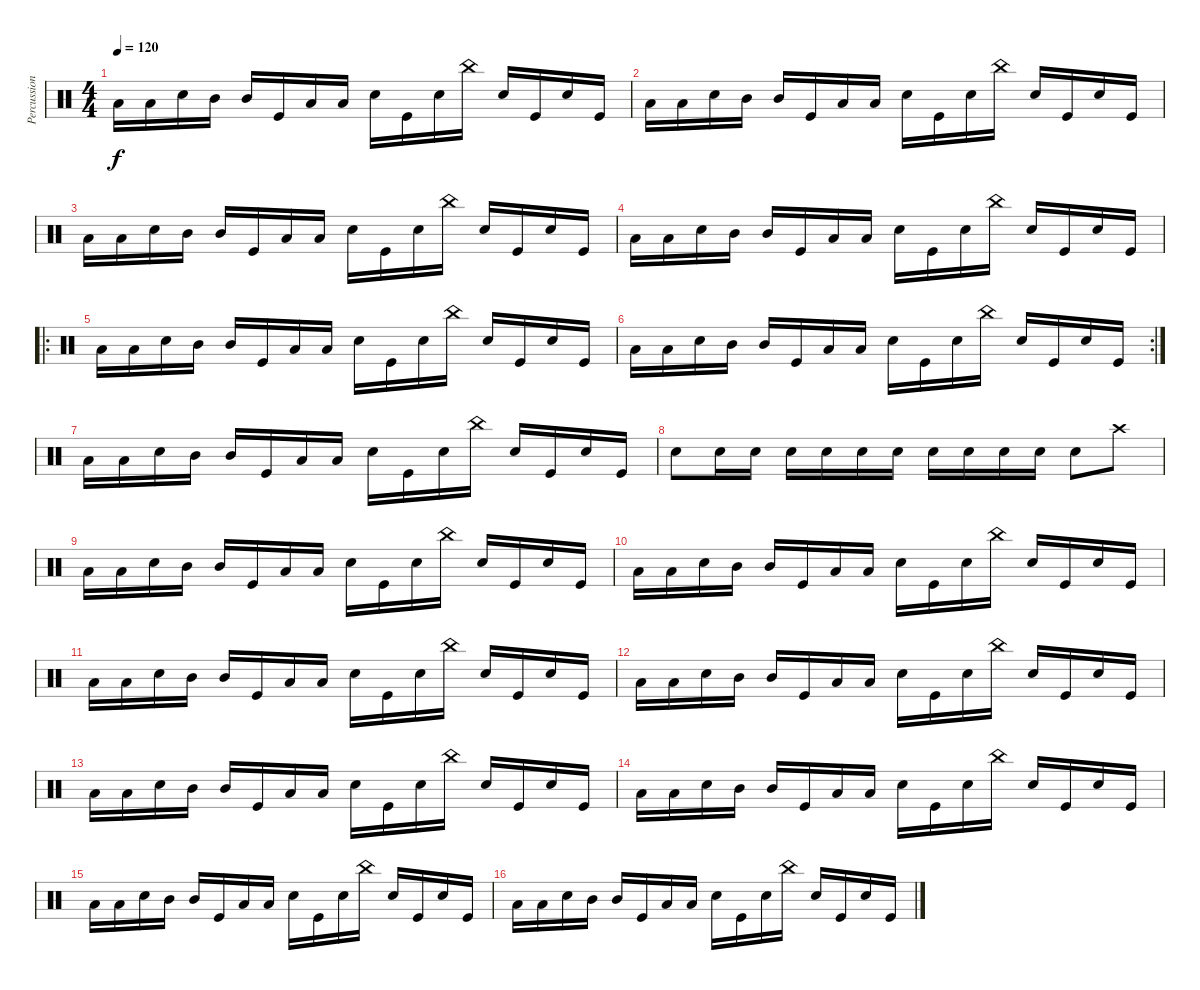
\track ("Percussion" "Percussion") {instrument percussion}
\staff {score}
\articulation defaults
\ts (4 4)
\tempo 120
\clef neutral
\ks c "Low Tom (hit)".16{dy f} "Low Tom (hit)".16 "Electric Snare (hit)".16 "Mid Tom (hit)".16 "Mid Tom (hit)".16 "Kick (hit)".16 "Low Tom (hit)".16 "Low Tom (hit)".16 "Electric Snare (hit)".16 "Kick (hit)".16 "Electric Snare (hit)".16 "China (hit)".16 "Electric Snare (hit)".16 "Kick (hit)".16 "Electric Snare (hit)".16 "Kick (hit)".16
|
"Low Tom (hit)".16 "Low Tom (hit)".16 "Electric Snare (hit)".16 "Mid Tom (hit)".16 "Mid Tom (hit)".16 "Kick (hit)".16 "Low Tom (hit)".16 "Low Tom (hit)".16 "Electric Snare (hit)".16 "Kick (hit)".16 "Electric Snare (hit)".16 "China (hit)".16 "Electric Snare (hit)".16 "Kick (hit)".16 "Electric Snare (hit)".16 "Kick (hit)".16 |
"Low Tom (hit)".16 "Low Tom (hit)".16 "Electric Snare (hit)".16 "Mid Tom (hit)".16 "Mid Tom (hit)".16 "Kick (hit)".16 "Low Tom (hit)".16 "Low Tom (hit)".16 "Electric Snare (hit)".16 "Kick (hit)".16 "Electric Snare (hit)".16 "China (hit)".16 "Electric Snare (hit)".16 "Kick (hit)".16 "Electric Snare (hit)".16 "Kick (hit)".16 |
"Low Tom (hit)".16 "Low Tom (hit)".16 "Electric Snare (hit)".16 "Mid Tom (hit)".16 "Mid Tom (hit)".16 "Kick (hit)".16 "Low Tom (hit)".16 "Low Tom (hit)".16 "Electric Snare (hit)".16 "Kick (hit)".16 "Electric Snare (hit)".16 "China (hit)".16 "Electric Snare (hit)".16 "Kick (hit)".16 "Electric Snare (hit)".16 "Kick (hit)".16 |
\ro "Low Tom (hit)".16 "Low Tom (hit)".16 "Electric Snare (hit)".16 "Mid Tom (hit)".16 "Mid Tom (hit)".16 "Kick (hit)".16 "Low Tom (hit)".16 "Low Tom (hit)".16 "Electric Snare (hit)".16 "Kick (hit)".16 "Electric Snare (hit)".16 "China (hit)".16 "Electric Snare (hit)".16 "Kick (hit)".16 "Electric Snare (hit)".16 "Kick (hit)".16
|
\rc 2 "Low Tom (hit)".16 "Low Tom (hit)".16 "Electric Snare (hit)".16 "Mid Tom (hit)".16 "Mid Tom (hit)".16 "Kick (hit)".16 "Low Tom (hit)".16 "Low Tom (hit)".16 "Electric Snare (hit)".16 "Kick (hit)".16 "Electric Snare (hit)".16 "China (hit)".16 "Electric Snare (hit)".16 "Kick (hit)".16 "Electric Snare (hit)".16 "Kick (hit)".16
|
"Low Tom (hit)".16 "Low Tom (hit)".16 "Electric Snare (hit)".16 "Mid Tom (hit)".16 "Mid Tom (hit)".16 "Kick (hit)".16 "Low Tom (hit)".16 "Low Tom (hit)".16 "Electric Snare (hit)".16 "Kick (hit)".16 "Electric Snare (hit)".16 "China (hit)".16 "Electric Snare (hit)".16 "Kick (hit)".16 "Electric Snare (hit)".16 "Kick (hit)".16 |
"Electric Snare (hit)".8 "Electric Snare (hit)".16 "Electric Snare (hit)".16 "Electric Snare (hit)".16 "Electric Snare (hit)".16 "Electric Snare (hit)".16 "Electric Snare (hit)".16 "Electric Snare (hit)".16 "Electric Snare (hit)".16 "Electric Snare (hit)".16 "Electric Snare (hit)".16 "Electric Snare (hit)".8 "Crash high (hit)".8 |
"Low Tom (hit)".16 "Low Tom (hit)".16 "Electric Snare (hit)".16 "Mid Tom (hit)".16 "Mid Tom (hit)".16 "Kick (hit)".16 "Low Tom (hit)".16 "Low Tom (hit)".16 "Electric Snare (hit)".16 "Kick (hit)".16 "Electric Snare (hit)".16 "China (hit)".16 "Electric Snare (hit)".16 "Kick (hit)".16 "Electric Snare (hit)".16 "Kick (hit)".16 |
"Low Tom (hit)".16 "Low Tom (hit)".16 "Electric Snare (hit)".16 "Mid Tom (hit)".16 "Mid Tom (hit)".16 "Kick (hit)".16 "Low Tom (hit)".16 "Low Tom (hit)".16 "Electric Snare (hit)".16 "Kick (hit)".16 "Electric Snare (hit)".16 "China (hit)".16 "Electric Snare (hit)".16 "Kick (hit)".16 "Electric Snare (hit)".16 "Kick (hit)".16 |
"Low Tom (hit)".16 "Low Tom (hit)".16 "Electric Snare (hit)".16 "Mid Tom (hit)".16 "Mid Tom (hit)".16 "Kick (hit)".16 "Low Tom (hit)".16 "Low Tom (hit)".16 "Electric Snare (hit)".16 "Kick (hit)".16 "Electric Snare (hit)".16 "China (hit)".16 "Electric Snare (hit)".16 "Kick (hit)".16 "Electric Snare (hit)".16 "Kick (hit)".16 |
"Low Tom (hit)".16 "Low Tom (hit)".16 "Electric Snare (hit)".16 "Mid Tom (hit)".16 "Mid Tom (hit)".16 "Kick (hit)".16 "Low Tom (hit)".16 "Low Tom (hit)".16 "Electric Snare (hit)".16 "Kick (hit)".16 "Electric Snare (hit)".16 "China (hit)".16 "Electric Snare (hit)".16 "Kick (hit)".16 "Electric Snare (hit)".16 "Kick (hit)".16 |
"Low Tom (hit)".16 "Low Tom (hit)".16 "Electric Snare (hit)".16 "Mid Tom (hit)".16 "Mid Tom (hit)".16 "Kick (hit)".16 "Low Tom (hit)".16 "Low Tom (hit)".16 "Electric Snare (hit)".16 "Kick (hit)".16 "Electric Snare (hit)".16 "China (hit)".16 "Electric Snare (hit)".16 "Kick (hit)".16 "Electric Snare (hit)".16 "Kick (hit)".16 |
"Low Tom (hit)".16 "Low Tom (hit)".16 "Electric Snare (hit)".16 "Mid Tom (hit)".16 "Mid Tom (hit)".16 "Kick (hit)".16 "Low Tom (hit)".16 "Low Tom (hit)".16 "Electric Snare (hit)".16 "Kick (hit)".16 "Electric Snare (hit)".16 "China (hit)".16 "Electric Snare (hit)".16 "Kick (hit)".16 "Electric Snare (hit)".16 "Kick (hit)".16 |
"Low Tom (hit)".16 "Low Tom (hit)".16 "Electric Snare (hit)".16 "Mid Tom (hit)".16 "Mid Tom (hit)".16 "Kick (hit)".16 "Low Tom (hit)".16 "Low Tom (hit)".16 "Electric Snare (hit)".16 "Kick (hit)".16 "Electric Snare (hit)".16 "China (hit)".16 "Electric Snare (hit)".16 "Kick (hit)".16 "Electric Snare (hit)".16 "Kick (hit)".16 |
"Low Tom (hit)".16 "Low Tom (hit)".16 "Electric Snare (hit)".16 "Mid Tom (hit)".16 "Mid Tom (hit)".16 "Kick (hit)".16 "Low Tom (hit)".16 "Low Tom (hit)".16 "Electric Snare (hit)".16 "Kick (hit)".16 "Electric Snare (hit)".16 "China (hit)".16 "Electric Snare (hit)".16 "Kick (hit)".16 "Electric Snare (hit)".16 "Kick (hit)".16
